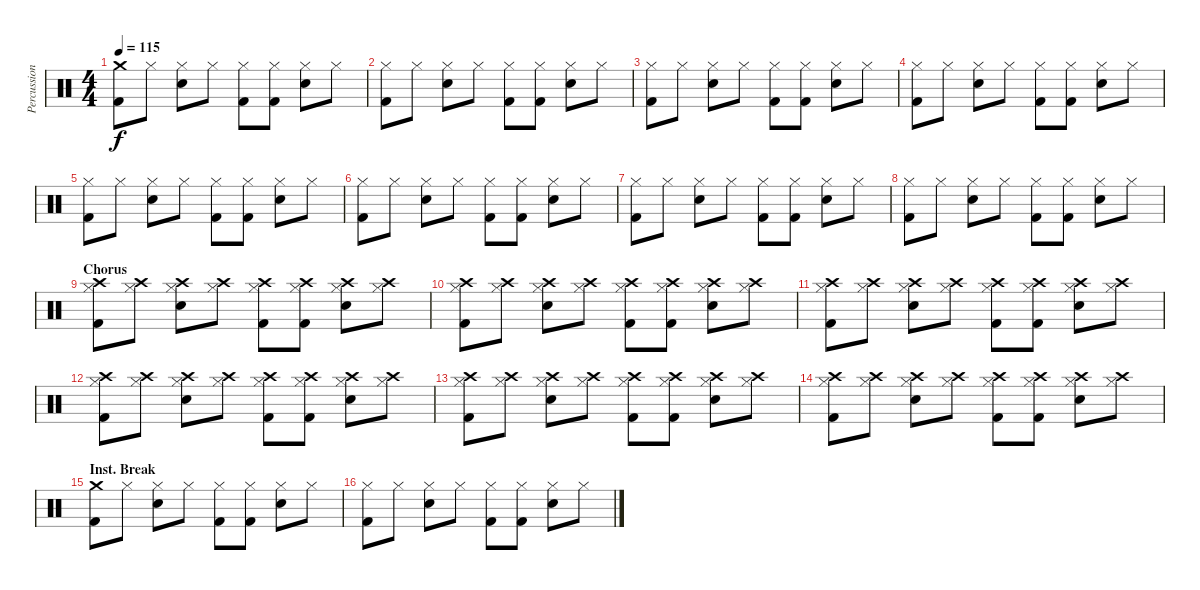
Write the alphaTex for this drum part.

\track ("Percussions" "Percussion") {instrument percussion}
\staff {score}
\articulation defaults
\ts (4 4)
\tempo 115
\clef neutral
\ks c
("Crash medium (hit)" "Kick (hit) 2").8{dy f} "Hi-Hat (closed)".8 ("Hi-Hat (closed)" "Electric Snare (hit)").8 "Hi-Hat (closed)".8 ("Hi-Hat (closed)" "Kick (hit) 2").8 ("Hi-Hat (closed)" "Kick (hit) 2").8 ("Hi-Hat (closed)" "Electric Snare (hit)").8 "Hi-Hat (closed)".8 |
("Hi-Hat (closed)" "Kick (hit) 2").8 "Hi-Hat (closed)".8 ("Hi-Hat (closed)" "Electric Snare (hit)").8 "Hi-Hat (closed)".8 ("Hi-Hat (closed)" "Kick (hit) 2").8 ("Hi-Hat (closed)" "Kick (hit) 2").8 ("Hi-Hat (closed)" "Electric Snare (hit)").8 "Hi-Hat (closed)".8 |
("Hi-Hat (closed)" "Kick (hit) 2").8 "Hi-Hat (closed)".8 ("Hi-Hat (closed)" "Electric Snare (hit)").8 "Hi-Hat (closed)".8 ("Hi-Hat (closed)" "Kick (hit) 2").8 ("Hi-Hat (closed)" "Kick (hit) 2").8 ("Hi-Hat (closed)" "Electric Snare (hit)").8 "Hi-Hat (closed)".8 |
("Hi-Hat (closed)" "Kick (hit) 2").8 "Hi-Hat (closed)".8 ("Hi-Hat (closed)" "Electric Snare (hit)").8 "Hi-Hat (closed)".8 ("Hi-Hat (closed)" "Kick (hit) 2").8 ("Hi-Hat (closed)" "Kick (hit) 2").8 ("Hi-Hat (closed)" "Electric Snare (hit)").8 "Hi-Hat (closed)".8 |
("Hi-Hat (closed)" "Kick (hit) 2").8 "Hi-Hat (closed)".8 ("Hi-Hat (closed)" "Electric Snare (hit)").8 "Hi-Hat (closed)".8 ("Hi-Hat (closed)" "Kick (hit) 2").8 ("Hi-Hat (closed)" "Kick (hit) 2").8 ("Hi-Hat (closed)" "Electric Snare (hit)").8 "Hi-Hat (closed)".8 |
("Hi-Hat (closed)" "Kick (hit) 2").8 "Hi-Hat (closed)".8 ("Hi-Hat (closed)" "Electric Snare (hit)").8 "Hi-Hat (closed)".8 ("Hi-Hat (closed)" "Kick (hit) 2").8 ("Hi-Hat (closed)" "Kick (hit) 2").8 ("Hi-Hat (closed)" "Electric Snare (hit)").8 "Hi-Hat (closed)".8 |
("Hi-Hat (closed)" "Kick (hit) 2").8 "Hi-Hat (closed)".8 ("Hi-Hat (closed)" "Electric Snare (hit)").8 "Hi-Hat (closed)".8 ("Hi-Hat (closed)" "Kick (hit) 2").8 ("Hi-Hat (closed)" "Kick (hit) 2").8 ("Hi-Hat (closed)" "Electric Snare (hit)").8 "Hi-Hat (closed)".8 |
("Hi-Hat (closed)" "Kick (hit) 2").8 "Hi-Hat (closed)".8 ("Hi-Hat (closed)" "Electric Snare (hit)").8 "Hi-Hat (closed)".8 ("Hi-Hat (closed)" "Kick (hit) 2").8 ("Hi-Hat (closed)" "Kick (hit) 2").8 ("Hi-Hat (closed)" "Electric Snare (hit)").8 "Hi-Hat (closed)".8 |
\section ("" "Chorus")
("Crash high (hit)" "Hi-Hat (closed)" "Kick (hit) 2").8 ("Crash high (hit)" "Hi-Hat (closed)").8 ("Crash high (hit)" "Hi-Hat (closed)" "Electric Snare (hit)").8 ("Crash high (hit)" "Hi-Hat (closed)").8 ("Crash high (hit)" "Hi-Hat (closed)" "Kick (hit) 2").8 ("Crash high (hit)" "Hi-Hat (closed)" "Kick (hit) 2").8 ("Crash high (hit)" "Hi-Hat (closed)" "Electric Snare (hit)").8 ("Crash high (hit)" "Hi-Hat (closed)").8 |
("Crash high (hit)" "Hi-Hat (closed)" "Kick (hit) 2").8 ("Crash high (hit)" "Hi-Hat (closed)").8 ("Crash high (hit)" "Hi-Hat (closed)" "Electric Snare (hit)").8 ("Crash high (hit)" "Hi-Hat (closed)").8 ("Crash high (hit)" "Hi-Hat (closed)" "Kick (hit) 2").8 ("Crash high (hit)" "Hi-Hat (closed)" "Kick (hit) 2").8 ("Crash high (hit)" "Hi-Hat (closed)" "Electric Snare (hit)").8 ("Crash high (hit)" "Hi-Hat (closed)").8 |
("Crash high (hit)" "Hi-Hat (closed)" "Kick (hit) 2").8 ("Crash high (hit)" "Hi-Hat (closed)").8 ("Crash high (hit)" "Hi-Hat (closed)" "Electric Snare (hit)").8 ("Crash high (hit)" "Hi-Hat (closed)").8 ("Crash high (hit)" "Hi-Hat (closed)" "Kick (hit) 2").8 ("Crash high (hit)" "Hi-Hat (closed)" "Kick (hit) 2").8 ("Crash high (hit)" "Hi-Hat (closed)" "Electric Snare (hit)").8 ("Crash high (hit)" "Hi-Hat (closed)").8 |
("Crash high (hit)" "Hi-Hat (closed)" "Kick (hit) 2").8 ("Crash high (hit)" "Hi-Hat (closed)").8 ("Crash high (hit)" "Hi-Hat (closed)" "Electric Snare (hit)").8 ("Crash high (hit)" "Hi-Hat (closed)").8 ("Crash high (hit)" "Hi-Hat (closed)" "Kick (hit) 2").8 ("Crash high (hit)" "Hi-Hat (closed)" "Kick (hit) 2").8 ("Crash high (hit)" "Hi-Hat (closed)" "Electric Snare (hit)").8 ("Crash high (hit)" "Hi-Hat (closed)").8 |
("Crash high (hit)" "Hi-Hat (closed)" "Kick (hit) 2").8 ("Crash high (hit)" "Hi-Hat (closed)").8 ("Crash high (hit)" "Hi-Hat (closed)" "Electric Snare (hit)").8 ("Crash high (hit)" "Hi-Hat (closed)").8 ("Crash high (hit)" "Hi-Hat (closed)" "Kick (hit) 2").8 ("Crash high (hit)" "Hi-Hat (closed)" "Kick (hit) 2").8 ("Crash high (hit)" "Hi-Hat (closed)" "Electric Snare (hit)").8 ("Crash high (hit)" "Hi-Hat (closed)").8 |
("Crash high (hit)" "Hi-Hat (closed)" "Kick (hit) 2").8 ("Crash high (hit)" "Hi-Hat (closed)").8 ("Crash high (hit)" "Hi-Hat (closed)" "Electric Snare (hit)").8 ("Crash high (hit)" "Hi-Hat (closed)").8 ("Crash high (hit)" "Hi-Hat (closed)" "Kick (hit) 2").8 ("Crash high (hit)" "Hi-Hat (closed)" "Kick (hit) 2").8 ("Crash high (hit)" "Hi-Hat (closed)" "Electric Snare (hit)").8 ("Crash high (hit)" "Hi-Hat (closed)").8 |
\section ("" "Inst. Break")
("Crash medium (hit)" "Kick (hit) 2").8 "Hi-Hat (closed)".8 ("Hi-Hat (closed)" "Electric Snare (hit)").8 "Hi-Hat (closed)".8 ("Hi-Hat (closed)" "Kick (hit) 2").8 ("Hi-Hat (closed)" "Kick (hit) 2").8 ("Hi-Hat (closed)" "Electric Snare (hit)").8 "Hi-Hat (closed)".8 |
("Hi-Hat (closed)" "Kick (hit) 2").8 "Hi-Hat (closed)".8 ("Hi-Hat (closed)" "Electric Snare (hit)").8 "Hi-Hat (closed)".8 ("Hi-Hat (closed)" "Kick (hit) 2").8 ("Hi-Hat (closed)" "Kick (hit) 2").8 ("Hi-Hat (closed)" "Electric Snare (hit)").8 "Hi-Hat (closed)".8
